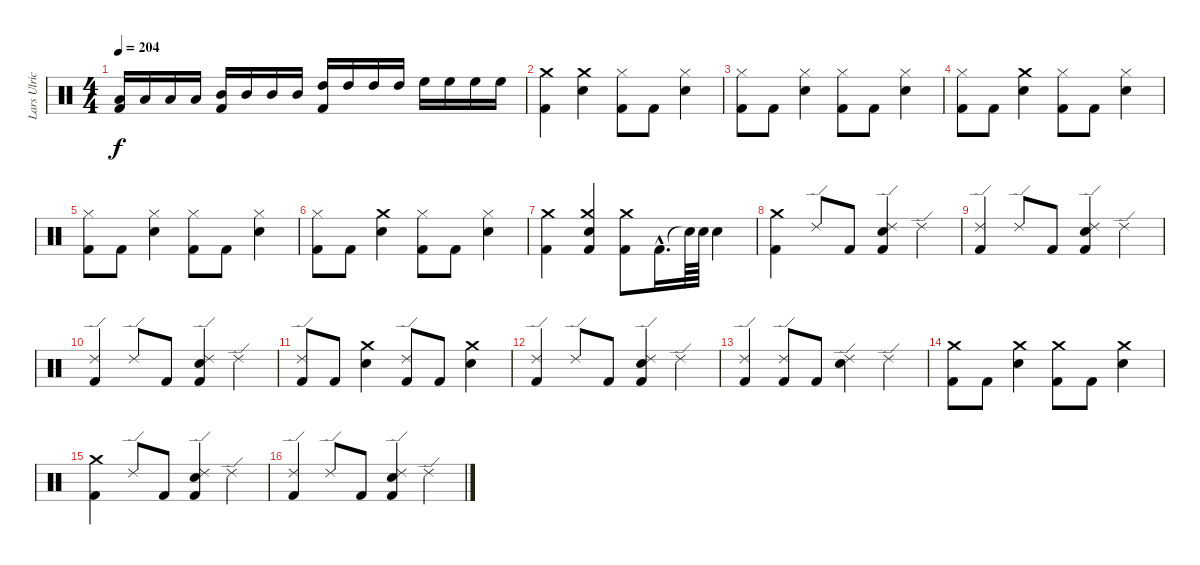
\track ("Lars Ulrich (Drums)" "Lars Ulric") {instrument percussion}
\staff {score}
\articulation defaults
\ts (4 4)
\tempo 204
\clef neutral
\ks c
("Low Tom (hit)" "Kick (hit) 2").16{dy f} "Low Tom (hit)".16 "Low Tom (hit)".16 "Low Tom (hit)".16 ("Mid Tom (hit)" "Kick (hit) 2").16 "Mid Tom (hit)".16 "Mid Tom (hit)".16 "Mid Tom (hit)".16 ("High Tom (hit)" "Kick (hit) 2").16 "High Tom (hit)".16 "High Tom (hit)".16 "High Tom (hit)".16 "High Floor Tom (hit)".16 "High Floor Tom (hit)".16 "High Floor Tom (hit)".16 "High Floor Tom (hit)".16 |
("Kick (hit) 2" "Crash medium (hit)").4 ("Snare (hit) 2" "Crash medium (hit)").4 ("Hi-Hat (closed)" "Kick (hit) 2").8 "Kick (hit) 2".8 ("Hi-Hat (closed)" "Snare (hit) 2").4 |
("Kick (hit) 2" "Hi-Hat (closed)").8 "Kick (hit) 2".8 ("Snare (hit) 2" "Hi-Hat (closed)").4 ("Kick (hit) 2" "Hi-Hat (closed)").8 "Kick (hit) 2".8 ("Snare (hit) 2" "Hi-Hat (closed)").4 |
("Kick (hit) 2" "Hi-Hat (closed)").8 "Kick (hit) 2".8 ("Crash medium (hit)" "Snare (hit) 2").4 ("Kick (hit) 2" "Hi-Hat (closed)").8 "Kick (hit) 2".8 ("Snare (hit) 2" "Hi-Hat (closed)").4 |
("Kick (hit) 2" "Hi-Hat (closed)").8 "Kick (hit) 2".8 ("Snare (hit) 2" "Hi-Hat (closed)").4 ("Kick (hit) 2" "Hi-Hat (closed)").8 "Kick (hit) 2".8 ("Snare (hit) 2" "Hi-Hat (closed)").4 |
("Kick (hit) 2" "Hi-Hat (closed)").8 "Kick (hit) 2".8 ("Crash medium (hit)" "Snare (hit) 2").4 ("Kick (hit) 2" "Hi-Hat (closed)").8 "Kick (hit) 2".8 ("Snare (hit) 2" "Hi-Hat (closed)").4 |
("Kick (hit) 2" "Crash medium (hit)").4 ("Kick (hit) 2" "Snare (hit) 2" "Crash medium (hit)").4 ("Kick (hit) 2" "Crash medium (hit)").8 "Kick (hit) 2"{hac}.16{d} "Snare (hit)"{t}.64 "Snare (hit) 2".64 "Snare (hit) 2".4 |
("Kick (hit) 2" "Crash medium (hit)").4 "Ride (edge) 2".8 "Kick (hit) 2".8 ("Kick (hit) 2" "Snare (hit) 2" "Ride (edge) 2").4 "Ride (edge) 2".4 |
("Kick (hit) 2" "Ride (edge) 2").4 "Ride (edge) 2".8 "Kick (hit) 2".8 ("Kick (hit) 2" "Snare (hit) 2" "Ride (edge) 2").4 "Ride (edge) 2".4 |
("Kick (hit) 2" "Ride (edge) 2").4 "Ride (edge) 2".8 "Kick (hit) 2".8 ("Kick (hit) 2" "Snare (hit) 2" "Ride (edge) 2").4 "Ride (edge) 2".4 |
("Ride (edge) 2" "Kick (hit) 2").8 "Kick (hit) 2".8 ("Snare (hit) 2" "Crash medium (hit)").4 ("Ride (edge) 2" "Kick (hit) 2").8 "Kick (hit) 2".8 ("Snare (hit) 2" "Crash medium (hit)").4 |
("Ride (edge) 2" "Kick (hit) 2").4 "Ride (edge) 2".8 "Kick (hit) 2".8 ("Ride (edge) 2" "Snare (hit) 2" "Kick (hit) 2").4 "Ride (edge) 2".4 |
("Kick (hit) 2" "Ride (edge) 2").4 ("Ride (edge) 2" "Kick (hit) 2").8 "Kick (hit) 2".8 ("Snare (hit) 2" "Ride (edge) 2").4 "Ride (edge) 2".4 |
("Kick (hit) 2" "Crash medium (hit)").8 "Kick (hit) 2".8 ("Snare (hit) 2" "Crash medium (hit)").4 ("Kick (hit) 2" "Crash medium (hit)").8 "Kick (hit) 2".8 ("Snare (hit) 2" "Crash medium (hit)").4 |
("Kick (hit) 2" "Crash medium (hit)").4 "Ride (edge) 2".8 "Kick (hit) 2".8 ("Kick (hit) 2" "Snare (hit) 2" "Ride (edge) 2").4 "Ride (edge) 2".4 |
("Kick (hit) 2" "Ride (edge) 2").4 "Ride (edge) 2".8 "Kick (hit) 2".8 ("Kick (hit) 2" "Snare (hit) 2" "Ride (edge) 2").4 "Ride (edge) 2".4
